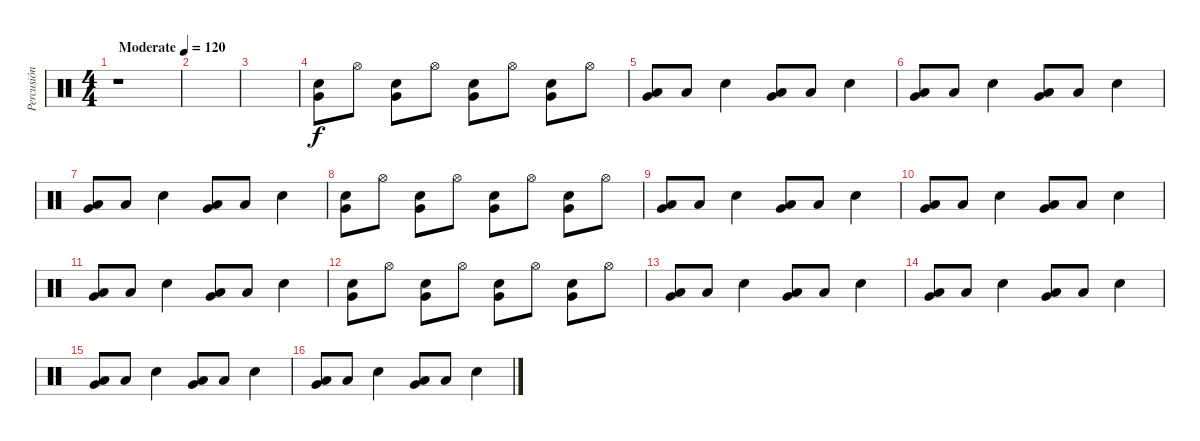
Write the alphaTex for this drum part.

\track ("Percusión" "Percusión") {instrument percussion}
\staff {score}
\articulation defaults
\ts (4 4)
\tempo (120 "Moderate")
\clef neutral
\ks c
r.1{dy f} |
|
|
("Electric Snare (hit)" "Very Low Tom (hit)").8 "Hi-Hat (open)".8 ("Electric Snare (hit)" "Very Low Tom (hit)").8 "Hi-Hat (open)".8 ("Electric Snare (hit)" "Very Low Tom (hit)").8 "Hi-Hat (open)".8 ("Electric Snare (hit)" "Very Low Tom (hit)").8 "Hi-Hat (open)".8 |
("Low Floor Tom (hit)" "Very Low Tom (hit)").8 "Low Floor Tom (hit)".8 "Electric Snare (hit)".4 ("Low Floor Tom (hit)" "Very Low Tom (hit)").8 "Low Floor Tom (hit)".8 "Electric Snare (hit)".4 |
("Low Floor Tom (hit)" "Very Low Tom (hit)").8 "Low Floor Tom (hit)".8 "Electric Snare (hit)".4 ("Low Floor Tom (hit)" "Very Low Tom (hit)").8 "Low Floor Tom (hit)".8 "Electric Snare (hit)".4 |
("Low Floor Tom (hit)" "Very Low Tom (hit)").8 "Low Floor Tom (hit)".8 "Electric Snare (hit)".4 ("Low Floor Tom (hit)" "Very Low Tom (hit)").8 "Low Floor Tom (hit)".8 "Electric Snare (hit)".4 |
("Electric Snare (hit)" "Very Low Tom (hit)").8 "Hi-Hat (open)".8 ("Electric Snare (hit)" "Very Low Tom (hit)").8 "Hi-Hat (open)".8 ("Electric Snare (hit)" "Very Low Tom (hit)").8 "Hi-Hat (open)".8 ("Electric Snare (hit)" "Very Low Tom (hit)").8 "Hi-Hat (open)".8 |
("Low Floor Tom (hit)" "Very Low Tom (hit)").8 "Low Floor Tom (hit)".8 "Electric Snare (hit)".4 ("Low Floor Tom (hit)" "Very Low Tom (hit)").8 "Low Floor Tom (hit)".8 "Electric Snare (hit)".4 |
("Low Floor Tom (hit)" "Very Low Tom (hit)").8 "Low Floor Tom (hit)".8 "Electric Snare (hit)".4 ("Low Floor Tom (hit)" "Very Low Tom (hit)").8 "Low Floor Tom (hit)".8 "Electric Snare (hit)".4 |
("Low Floor Tom (hit)" "Very Low Tom (hit)").8 "Low Floor Tom (hit)".8 "Electric Snare (hit)".4 ("Low Floor Tom (hit)" "Very Low Tom (hit)").8 "Low Floor Tom (hit)".8 "Electric Snare (hit)".4 |
("Electric Snare (hit)" "Very Low Tom (hit)").8 "Hi-Hat (open)".8 ("Electric Snare (hit)" "Very Low Tom (hit)").8 "Hi-Hat (open)".8 ("Electric Snare (hit)" "Very Low Tom (hit)").8 "Hi-Hat (open)".8 ("Electric Snare (hit)" "Very Low Tom (hit)").8 "Hi-Hat (open)".8 |
("Low Floor Tom (hit)" "Very Low Tom (hit)").8 "Low Floor Tom (hit)".8 "Electric Snare (hit)".4 ("Low Floor Tom (hit)" "Very Low Tom (hit)").8 "Low Floor Tom (hit)".8 "Electric Snare (hit)".4 |
("Low Floor Tom (hit)" "Very Low Tom (hit)").8 "Low Floor Tom (hit)".8 "Electric Snare (hit)".4 ("Low Floor Tom (hit)" "Very Low Tom (hit)").8 "Low Floor Tom (hit)".8 "Electric Snare (hit)".4 |
("Low Floor Tom (hit)" "Very Low Tom (hit)").8 "Low Floor Tom (hit)".8 "Electric Snare (hit)".4 ("Low Floor Tom (hit)" "Very Low Tom (hit)").8 "Low Floor Tom (hit)".8 "Electric Snare (hit)".4 |
("Low Floor Tom (hit)" "Very Low Tom (hit)").8 "Low Floor Tom (hit)".8 "Electric Snare (hit)".4 ("Low Floor Tom (hit)" "Very Low Tom (hit)").8 "Low Floor Tom (hit)".8 "Electric Snare (hit)".4
